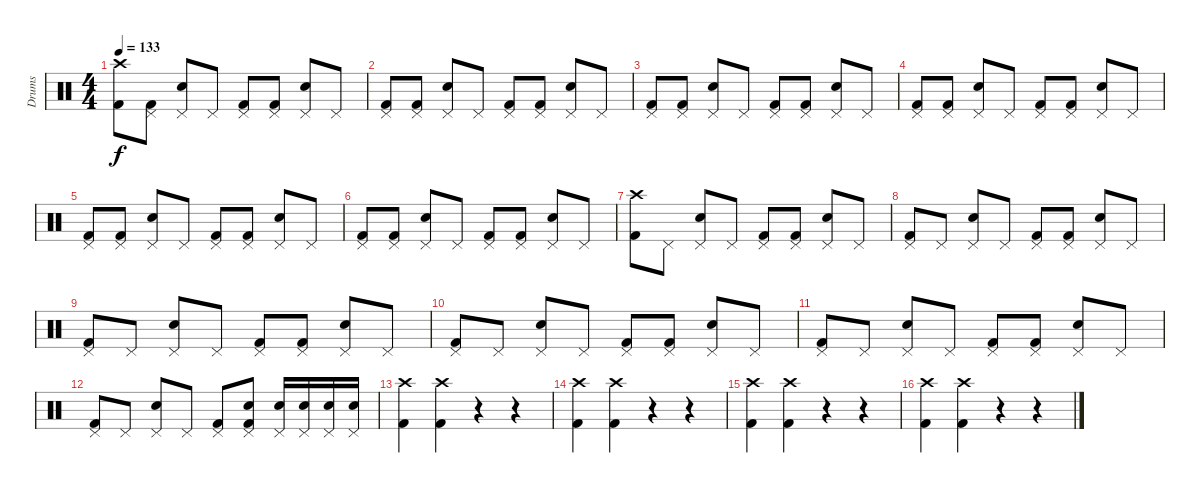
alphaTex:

\track ("Drums" "Drums") {instrument percussion}
\staff {score}
\articulation defaults
\ts (4 4)
\tempo 133
\clef neutral
\ks c
("Crash high (hit)" "Kick (hit) 2").8{dy f} ("Pedal Hi-Hat (hit)" "Kick (hit) 2").8 ("Pedal Hi-Hat (hit)" "Snare (hit) 2").8 "Pedal Hi-Hat (hit)".8 ("Pedal Hi-Hat (hit)" "Kick (hit) 2").8 ("Pedal Hi-Hat (hit)" "Kick (hit) 2").8 ("Pedal Hi-Hat (hit)" "Snare (hit) 2").8 "Pedal Hi-Hat (hit)".8 |
("Pedal Hi-Hat (hit)" "Kick (hit) 2").8 ("Pedal Hi-Hat (hit)" "Kick (hit) 2").8 ("Pedal Hi-Hat (hit)" "Snare (hit) 2").8 "Pedal Hi-Hat (hit)".8 ("Pedal Hi-Hat (hit)" "Kick (hit) 2").8 ("Pedal Hi-Hat (hit)" "Kick (hit) 2").8 ("Pedal Hi-Hat (hit)" "Snare (hit) 2").8 "Pedal Hi-Hat (hit)".8 |
("Pedal Hi-Hat (hit)" "Kick (hit) 2").8 ("Pedal Hi-Hat (hit)" "Kick (hit) 2").8 ("Pedal Hi-Hat (hit)" "Snare (hit) 2").8 "Pedal Hi-Hat (hit)".8 ("Pedal Hi-Hat (hit)" "Kick (hit) 2").8 ("Pedal Hi-Hat (hit)" "Kick (hit) 2").8 ("Pedal Hi-Hat (hit)" "Snare (hit) 2").8 "Pedal Hi-Hat (hit)".8 |
("Pedal Hi-Hat (hit)" "Kick (hit) 2").8 ("Pedal Hi-Hat (hit)" "Kick (hit) 2").8 ("Pedal Hi-Hat (hit)" "Snare (hit) 2").8 "Pedal Hi-Hat (hit)".8 ("Pedal Hi-Hat (hit)" "Kick (hit) 2").8 ("Pedal Hi-Hat (hit)" "Kick (hit) 2").8 ("Pedal Hi-Hat (hit)" "Snare (hit) 2").8 "Pedal Hi-Hat (hit)".8 |
("Pedal Hi-Hat (hit)" "Kick (hit) 2").8 ("Pedal Hi-Hat (hit)" "Kick (hit) 2").8 ("Pedal Hi-Hat (hit)" "Snare (hit) 2").8 "Pedal Hi-Hat (hit)".8 ("Pedal Hi-Hat (hit)" "Kick (hit) 2").8 ("Pedal Hi-Hat (hit)" "Kick (hit) 2").8 ("Pedal Hi-Hat (hit)" "Snare (hit) 2").8 "Pedal Hi-Hat (hit)".8 |
("Pedal Hi-Hat (hit)" "Kick (hit) 2").8 ("Pedal Hi-Hat (hit)" "Kick (hit) 2").8 ("Pedal Hi-Hat (hit)" "Snare (hit) 2").8 "Pedal Hi-Hat (hit)".8 ("Pedal Hi-Hat (hit)" "Kick (hit) 2").8 ("Pedal Hi-Hat (hit)" "Kick (hit) 2").8 ("Pedal Hi-Hat (hit)" "Snare (hit) 2").8 "Pedal Hi-Hat (hit)".8 |
("Crash high (hit)" "Kick (hit) 2").8 "Pedal Hi-Hat (hit)".8 ("Pedal Hi-Hat (hit)" "Snare (hit) 2").8 "Pedal Hi-Hat (hit)".8 ("Pedal Hi-Hat (hit)" "Kick (hit) 2").8 ("Pedal Hi-Hat (hit)" "Kick (hit) 2").8 ("Pedal Hi-Hat (hit)" "Snare (hit) 2").8 "Pedal Hi-Hat (hit)".8 |
("Pedal Hi-Hat (hit)" "Kick (hit) 2").8 "Pedal Hi-Hat (hit)".8 ("Pedal Hi-Hat (hit)" "Snare (hit) 2").8 "Pedal Hi-Hat (hit)".8 ("Pedal Hi-Hat (hit)" "Kick (hit) 2").8 ("Pedal Hi-Hat (hit)" "Kick (hit) 2").8 ("Pedal Hi-Hat (hit)" "Snare (hit) 2").8 "Pedal Hi-Hat (hit)".8 |
("Pedal Hi-Hat (hit)" "Kick (hit) 2").8 "Pedal Hi-Hat (hit)".8 ("Pedal Hi-Hat (hit)" "Snare (hit) 2").8 "Pedal Hi-Hat (hit)".8 ("Pedal Hi-Hat (hit)" "Kick (hit) 2").8 ("Pedal Hi-Hat (hit)" "Kick (hit) 2").8 ("Pedal Hi-Hat (hit)" "Snare (hit) 2").8 "Pedal Hi-Hat (hit)".8 |
("Pedal Hi-Hat (hit)" "Kick (hit) 2").8 "Pedal Hi-Hat (hit)".8 ("Pedal Hi-Hat (hit)" "Snare (hit) 2").8 "Pedal Hi-Hat (hit)".8 ("Pedal Hi-Hat (hit)" "Kick (hit) 2").8 ("Pedal Hi-Hat (hit)" "Kick (hit) 2").8 ("Pedal Hi-Hat (hit)" "Snare (hit) 2").8 "Pedal Hi-Hat (hit)".8 |
("Pedal Hi-Hat (hit)" "Kick (hit) 2").8 "Pedal Hi-Hat (hit)".8 ("Pedal Hi-Hat (hit)" "Snare (hit) 2").8 "Pedal Hi-Hat (hit)".8 ("Pedal Hi-Hat (hit)" "Kick (hit) 2").8 ("Pedal Hi-Hat (hit)" "Kick (hit) 2").8 ("Pedal Hi-Hat (hit)" "Snare (hit) 2").8 "Pedal Hi-Hat (hit)".8 |
("Pedal Hi-Hat (hit)" "Kick (hit) 2").8 "Pedal Hi-Hat (hit)".8 ("Pedal Hi-Hat (hit)" "Snare (hit) 2").8 "Pedal Hi-Hat (hit)".8 ("Pedal Hi-Hat (hit)" "Kick (hit) 2").8 ("Pedal Hi-Hat (hit)" "Snare (hit) 2" "Kick (hit) 2").8 ("Pedal Hi-Hat (hit)" "Snare (hit) 2").16 ("Pedal Hi-Hat (hit)" "Snare (hit) 2").16 ("Pedal Hi-Hat (hit)" "Snare (hit) 2").16 ("Pedal Hi-Hat (hit)" "Snare (hit) 2").16 |
("Crash high (hit)" "Kick (hit) 2").4 ("Crash high (hit)" "Kick (hit) 2").4 r.4 r.4 |
("Crash high (hit)" "Kick (hit) 2").4 ("Crash high (hit)" "Kick (hit) 2").4 r.4 r.4 |
("Crash high (hit)" "Kick (hit) 2").4 ("Crash high (hit)" "Kick (hit) 2").4 r.4 r.4 |
("Crash high (hit)" "Kick (hit) 2").4 ("Crash high (hit)" "Kick (hit) 2").4 r.4 r.4
